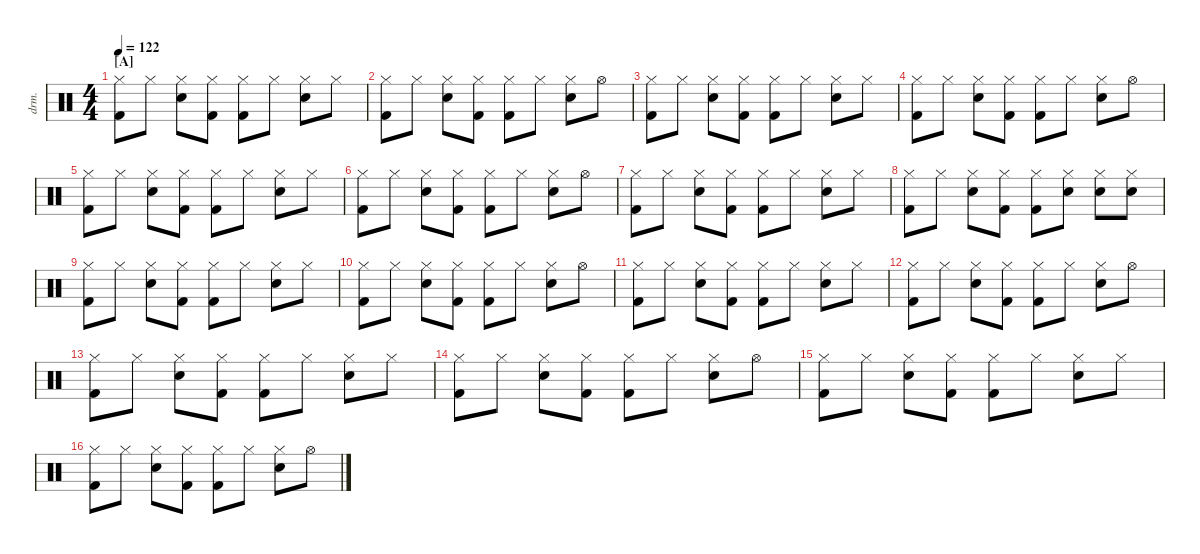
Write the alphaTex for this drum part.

\defaultSystemsLayout 4
\hideDynamics
\bracketExtendMode nobrackets
\track ("Drumkit" "drm.") {defaultSystemsLayout 4 instrument percussion}
\staff {score}
\articulation defaults
\ts (4 4)
\section ("A" "")
\tempo 122
\clef neutral
\ks c
("Hi-Hat (closed)" "Kick (hit) 2").8{dy f beam Down} "Hi-Hat (closed)".8{beam Down} ("Hi-Hat (closed)" "Snare (hit) 2").8{beam Down} ("Hi-Hat (closed)" "Kick (hit) 2").8{beam Down} ("Hi-Hat (closed)" "Kick (hit) 2").8{beam Down} "Hi-Hat (closed)".8{beam Down} ("Hi-Hat (closed)" "Snare (hit) 2").8{beam Down} "Hi-Hat (closed)".8{beam Down} |
("Hi-Hat (closed)" "Kick (hit) 2").8{beam Down} "Hi-Hat (closed)".8{beam Down} ("Hi-Hat (closed)" "Snare (hit) 2").8{beam Down} ("Hi-Hat (closed)" "Kick (hit) 2").8{beam Down} ("Hi-Hat (closed)" "Kick (hit) 2").8{beam Down} "Hi-Hat (closed)".8{beam Down} ("Hi-Hat (closed)" "Snare (hit) 2").8{beam Down} "Hi-Hat (open)".8{beam Down} |
("Hi-Hat (closed)" "Kick (hit) 2").8{beam Down} "Hi-Hat (closed)".8{beam Down} ("Hi-Hat (closed)" "Snare (hit) 2").8{beam Down} ("Hi-Hat (closed)" "Kick (hit) 2").8{beam Down} ("Hi-Hat (closed)" "Kick (hit) 2").8{beam Down} "Hi-Hat (closed)".8{beam Down} ("Hi-Hat (closed)" "Snare (hit) 2").8{beam Down} "Hi-Hat (closed)".8{beam Down} |
("Hi-Hat (closed)" "Kick (hit) 2").8{beam Down} "Hi-Hat (closed)".8{beam Down} ("Hi-Hat (closed)" "Snare (hit) 2").8{beam Down} ("Hi-Hat (closed)" "Kick (hit) 2").8{beam Down} ("Hi-Hat (closed)" "Kick (hit) 2").8{beam Down} "Hi-Hat (closed)".8{beam Down} ("Hi-Hat (closed)" "Snare (hit) 2").8{beam Down} "Hi-Hat (open)".8{beam Down} |
\section ("" "")
("Hi-Hat (closed)" "Kick (hit) 2").8{beam Down} "Hi-Hat (closed)".8{beam Down} ("Hi-Hat (closed)" "Snare (hit) 2").8{beam Down} ("Hi-Hat (closed)" "Kick (hit) 2").8{beam Down} ("Hi-Hat (closed)" "Kick (hit) 2").8{beam Down} "Hi-Hat (closed)".8{beam Down} ("Hi-Hat (closed)" "Snare (hit) 2").8{beam Down} "Hi-Hat (closed)".8{beam Down} |
("Hi-Hat (closed)" "Kick (hit) 2").8{beam Down} "Hi-Hat (closed)".8{beam Down} ("Hi-Hat (closed)" "Snare (hit) 2").8{beam Down} ("Hi-Hat (closed)" "Kick (hit) 2").8{beam Down} ("Hi-Hat (closed)" "Kick (hit) 2").8{beam Down} "Hi-Hat (closed)".8{beam Down} ("Hi-Hat (closed)" "Snare (hit) 2").8{beam Down} "Hi-Hat (open)".8{beam Down} |
("Hi-Hat (closed)" "Kick (hit) 2").8{beam Down} "Hi-Hat (closed)".8{beam Down} ("Hi-Hat (closed)" "Snare (hit) 2").8{beam Down} ("Hi-Hat (closed)" "Kick (hit) 2").8{beam Down} ("Hi-Hat (closed)" "Kick (hit) 2").8{beam Down} "Hi-Hat (closed)".8{beam Down} ("Hi-Hat (closed)" "Snare (hit) 2").8{beam Down} "Hi-Hat (closed)".8{beam Down} |
("Hi-Hat (closed)" "Kick (hit) 2").8{beam Down} "Hi-Hat (closed)".8{beam Down} ("Hi-Hat (closed)" "Snare (hit) 2").8{beam Down} ("Hi-Hat (closed)" "Kick (hit) 2").8{beam Down} ("Hi-Hat (closed)" "Kick (hit) 2").8{beam Down} ("Hi-Hat (closed)" "Snare (hit) 2").8{beam Down} ("Hi-Hat (closed)" "Snare (hit) 2").8{beam Down} ("Hi-Hat (closed)" "Snare (hit) 2").8{beam Down} |
("Hi-Hat (closed)" "Kick (hit) 2").8{beam Down} "Hi-Hat (closed)".8{beam Down} ("Hi-Hat (closed)" "Snare (hit) 2").8{beam Down} ("Hi-Hat (closed)" "Kick (hit) 2").8{beam Down} ("Hi-Hat (closed)" "Kick (hit) 2").8{beam Down} "Hi-Hat (closed)".8{beam Down} ("Hi-Hat (closed)" "Snare (hit) 2").8{beam Down} "Hi-Hat (closed)".8{beam Down} |
("Hi-Hat (closed)" "Kick (hit) 2").8{beam Down} "Hi-Hat (closed)".8{beam Down} ("Hi-Hat (closed)" "Snare (hit) 2").8{beam Down} ("Hi-Hat (closed)" "Kick (hit) 2").8{beam Down} ("Hi-Hat (closed)" "Kick (hit) 2").8{beam Down} "Hi-Hat (closed)".8{beam Down} ("Hi-Hat (closed)" "Snare (hit) 2").8{beam Down} "Hi-Hat (open)".8{beam Down} |
("Hi-Hat (closed)" "Kick (hit) 2").8{beam Down} "Hi-Hat (closed)".8{beam Down} ("Hi-Hat (closed)" "Snare (hit) 2").8{beam Down} ("Hi-Hat (closed)" "Kick (hit) 2").8{beam Down} ("Hi-Hat (closed)" "Kick (hit) 2").8{beam Down} "Hi-Hat (closed)".8{beam Down} ("Hi-Hat (closed)" "Snare (hit) 2").8{beam Down} "Hi-Hat (closed)".8{beam Down} |
("Hi-Hat (closed)" "Kick (hit) 2").8{beam Down} "Hi-Hat (closed)".8{beam Down} ("Hi-Hat (closed)" "Snare (hit) 2").8{beam Down} ("Hi-Hat (closed)" "Kick (hit) 2").8{beam Down} ("Hi-Hat (closed)" "Kick (hit) 2").8{beam Down} "Hi-Hat (closed)".8{beam Down} ("Hi-Hat (closed)" "Snare (hit) 2").8{beam Down} "Hi-Hat (open)".8{beam Down} |
("Hi-Hat (closed)" "Kick (hit) 2").8{beam Down} "Hi-Hat (closed)".8{beam Down} ("Hi-Hat (closed)" "Snare (hit) 2").8{beam Down} ("Hi-Hat (closed)" "Kick (hit) 2").8{beam Down} ("Hi-Hat (closed)" "Kick (hit) 2").8{beam Down} "Hi-Hat (closed)".8{beam Down} ("Hi-Hat (closed)" "Snare (hit) 2").8{beam Down} "Hi-Hat (closed)".8{beam Down} |
("Hi-Hat (closed)" "Kick (hit) 2").8{beam Down} "Hi-Hat (closed)".8{beam Down} ("Hi-Hat (closed)" "Snare (hit) 2").8{beam Down} ("Hi-Hat (closed)" "Kick (hit) 2").8{beam Down} ("Hi-Hat (closed)" "Kick (hit) 2").8{beam Down} "Hi-Hat (closed)".8{beam Down} ("Hi-Hat (closed)" "Snare (hit) 2").8{beam Down} "Hi-Hat (open)".8{beam Down} |
("Hi-Hat (closed)" "Kick (hit) 2").8{beam Down} "Hi-Hat (closed)".8{beam Down} ("Hi-Hat (closed)" "Snare (hit) 2").8{beam Down} ("Hi-Hat (closed)" "Kick (hit) 2").8{beam Down} ("Hi-Hat (closed)" "Kick (hit) 2").8{beam Down} "Hi-Hat (closed)".8{beam Down} ("Hi-Hat (closed)" "Snare (hit) 2").8{beam Down} "Hi-Hat (closed)".8{beam Down} |
("Hi-Hat (closed)" "Kick (hit) 2").8{beam Down} "Hi-Hat (closed)".8{beam Down} ("Hi-Hat (closed)" "Snare (hit) 2").8{beam Down} ("Hi-Hat (closed)" "Kick (hit) 2").8{beam Down} ("Hi-Hat (closed)" "Kick (hit) 2").8{beam Down} "Hi-Hat (closed)".8{beam Down} ("Hi-Hat (closed)" "Snare (hit) 2").8{beam Down} "Hi-Hat (open)".8{beam Down}
